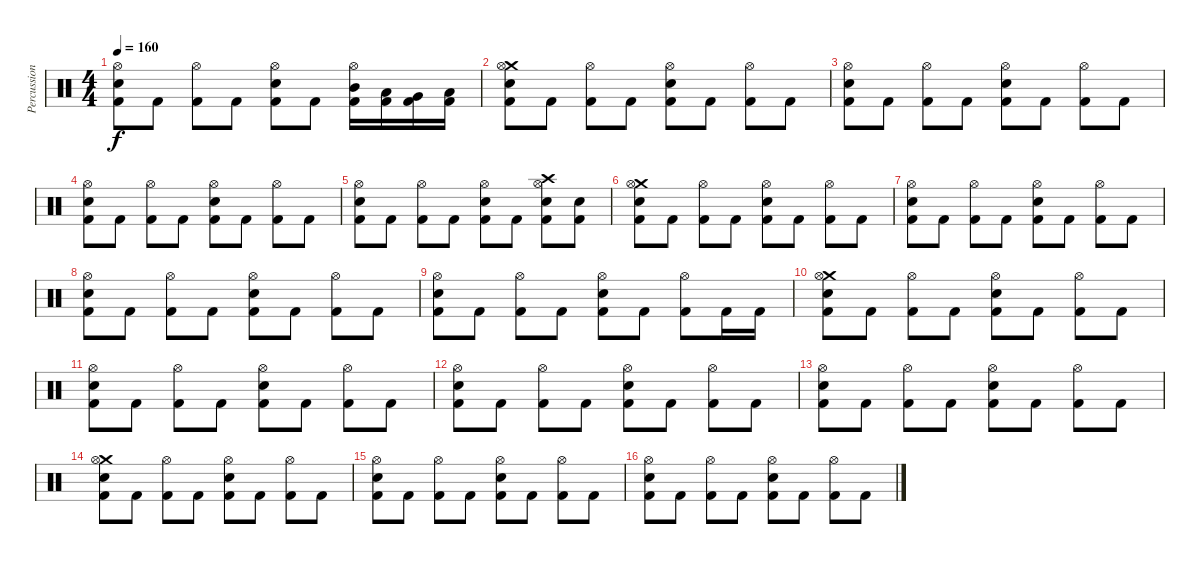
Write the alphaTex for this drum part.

\track ("Percussion" "Percussion") {instrument percussion}
\staff {score}
\articulation defaults
\ts (4 4)
\tempo 160
\clef neutral
\ks c
("Hi-Hat (open)" "Electric Snare (hit)" "Kick (hit) 2").8{dy f} "Kick (hit) 2".8 ("Hi-Hat (open)" "Kick (hit) 2").8 "Kick (hit) 2".8 ("Hi-Hat (open)" "Electric Snare (hit)" "Kick (hit) 2").8 "Kick (hit) 2".8 ("Hi-Hat (open)" "Mid Tom (hit)" "Kick (hit) 2").16 ("Low Tom (hit)" "Kick (hit) 2").16 ("Very Low Tom (hit)" "Kick (hit) 2").16 ("Low Floor Tom (hit)" "Kick (hit) 2").16 |
("Crash medium (hit)" "Hi-Hat (open)" "Electric Snare (hit)" "Kick (hit) 2").8 "Kick (hit) 2".8 ("Hi-Hat (open)" "Kick (hit) 2").8 "Kick (hit) 2".8 ("Hi-Hat (open)" "Electric Snare (hit)" "Kick (hit) 2").8 "Kick (hit) 2".8 ("Hi-Hat (open)" "Kick (hit) 2").8 "Kick (hit) 2".8 |
("Hi-Hat (open)" "Electric Snare (hit)" "Kick (hit) 2").8 "Kick (hit) 2".8 ("Hi-Hat (open)" "Kick (hit) 2").8 "Kick (hit) 2".8 ("Hi-Hat (open)" "Electric Snare (hit)" "Kick (hit) 2").8 "Kick (hit) 2".8 ("Hi-Hat (open)" "Kick (hit) 2").8 "Kick (hit) 2".8 |
("Hi-Hat (open)" "Electric Snare (hit)" "Kick (hit) 2").8 "Kick (hit) 2".8 ("Hi-Hat (open)" "Kick (hit) 2").8 "Kick (hit) 2".8 ("Hi-Hat (open)" "Electric Snare (hit)" "Kick (hit) 2").8 "Kick (hit) 2".8 ("Hi-Hat (open)" "Kick (hit) 2").8 "Kick (hit) 2".8 |
("Hi-Hat (open)" "Electric Snare (hit)" "Kick (hit) 2").8 "Kick (hit) 2".8 ("Hi-Hat (open)" "Kick (hit) 2").8 "Kick (hit) 2".8 ("Hi-Hat (open)" "Electric Snare (hit)" "Kick (hit) 2").8 "Kick (hit) 2".8 ("Crash high (hit)" "Hi-Hat (open)" "Electric Snare (hit)" "Kick (hit) 2").8 ("Electric Snare (hit)" "Kick (hit) 2").8 |
("Crash medium (hit)" "Hi-Hat (open)" "Electric Snare (hit)" "Kick (hit) 2").8 "Kick (hit) 2".8 ("Hi-Hat (open)" "Kick (hit) 2").8 "Kick (hit) 2".8 ("Hi-Hat (open)" "Electric Snare (hit)" "Kick (hit) 2").8 "Kick (hit) 2".8 ("Hi-Hat (open)" "Kick (hit) 2").8 "Kick (hit) 2".8 |
("Hi-Hat (open)" "Electric Snare (hit)" "Kick (hit) 2").8 "Kick (hit) 2".8 ("Hi-Hat (open)" "Kick (hit) 2").8 "Kick (hit) 2".8 ("Hi-Hat (open)" "Electric Snare (hit)" "Kick (hit) 2").8 "Kick (hit) 2".8 ("Hi-Hat (open)" "Kick (hit) 2").8 "Kick (hit) 2".8 |
("Hi-Hat (open)" "Electric Snare (hit)" "Kick (hit) 2").8 "Kick (hit) 2".8 ("Hi-Hat (open)" "Kick (hit) 2").8 "Kick (hit) 2".8 ("Hi-Hat (open)" "Electric Snare (hit)" "Kick (hit) 2").8 "Kick (hit) 2".8 ("Hi-Hat (open)" "Kick (hit) 2").8 "Kick (hit) 2".8 |
("Hi-Hat (open)" "Electric Snare (hit)" "Kick (hit) 2").8 "Kick (hit) 2".8 ("Hi-Hat (open)" "Kick (hit) 2").8 "Kick (hit) 2".8 ("Hi-Hat (open)" "Electric Snare (hit)" "Kick (hit) 2").8 "Kick (hit) 2".8 ("Hi-Hat (open)" "Kick (hit) 2").8 "Kick (hit) 2".16 "Kick (hit) 2".16 |
("Crash medium (hit)" "Hi-Hat (open)" "Electric Snare (hit)" "Kick (hit) 2").8 "Kick (hit) 2".8 ("Hi-Hat (open)" "Kick (hit) 2").8 "Kick (hit) 2".8 ("Hi-Hat (open)" "Electric Snare (hit)" "Kick (hit) 2").8 "Kick (hit) 2".8 ("Hi-Hat (open)" "Kick (hit) 2").8 "Kick (hit) 2".8 |
("Hi-Hat (open)" "Electric Snare (hit)" "Kick (hit) 2").8 "Kick (hit) 2".8 ("Hi-Hat (open)" "Kick (hit) 2").8 "Kick (hit) 2".8 ("Hi-Hat (open)" "Electric Snare (hit)" "Kick (hit) 2").8 "Kick (hit) 2".8 ("Hi-Hat (open)" "Kick (hit) 2").8 "Kick (hit) 2".8 |
("Hi-Hat (open)" "Electric Snare (hit)" "Kick (hit) 2").8 "Kick (hit) 2".8 ("Hi-Hat (open)" "Kick (hit) 2").8 "Kick (hit) 2".8 ("Hi-Hat (open)" "Electric Snare (hit)" "Kick (hit) 2").8 "Kick (hit) 2".8 ("Hi-Hat (open)" "Kick (hit) 2").8 "Kick (hit) 2".8 |
("Hi-Hat (open)" "Electric Snare (hit)" "Kick (hit) 2").8 "Kick (hit) 2".8 ("Hi-Hat (open)" "Kick (hit) 2").8 "Kick (hit) 2".8 ("Hi-Hat (open)" "Electric Snare (hit)" "Kick (hit) 2").8 "Kick (hit) 2".8 ("Hi-Hat (open)" "Kick (hit) 2").8 "Kick (hit) 2".8 |
("Crash medium (hit)" "Hi-Hat (open)" "Electric Snare (hit)" "Kick (hit) 2").8 "Kick (hit) 2".8 ("Hi-Hat (open)" "Kick (hit) 2").8 "Kick (hit) 2".8 ("Hi-Hat (open)" "Electric Snare (hit)" "Kick (hit) 2").8 "Kick (hit) 2".8 ("Hi-Hat (open)" "Kick (hit) 2").8 "Kick (hit) 2".8 |
("Hi-Hat (open)" "Electric Snare (hit)" "Kick (hit) 2").8 "Kick (hit) 2".8 ("Hi-Hat (open)" "Kick (hit) 2").8 "Kick (hit) 2".8 ("Hi-Hat (open)" "Electric Snare (hit)" "Kick (hit) 2").8 "Kick (hit) 2".8 ("Hi-Hat (open)" "Kick (hit) 2").8 "Kick (hit) 2".8 |
("Hi-Hat (open)" "Electric Snare (hit)" "Kick (hit) 2").8 "Kick (hit) 2".8 ("Hi-Hat (open)" "Kick (hit) 2").8 "Kick (hit) 2".8 ("Hi-Hat (open)" "Electric Snare (hit)" "Kick (hit) 2").8 "Kick (hit) 2".8 ("Hi-Hat (open)" "Kick (hit) 2").8 "Kick (hit) 2".8
